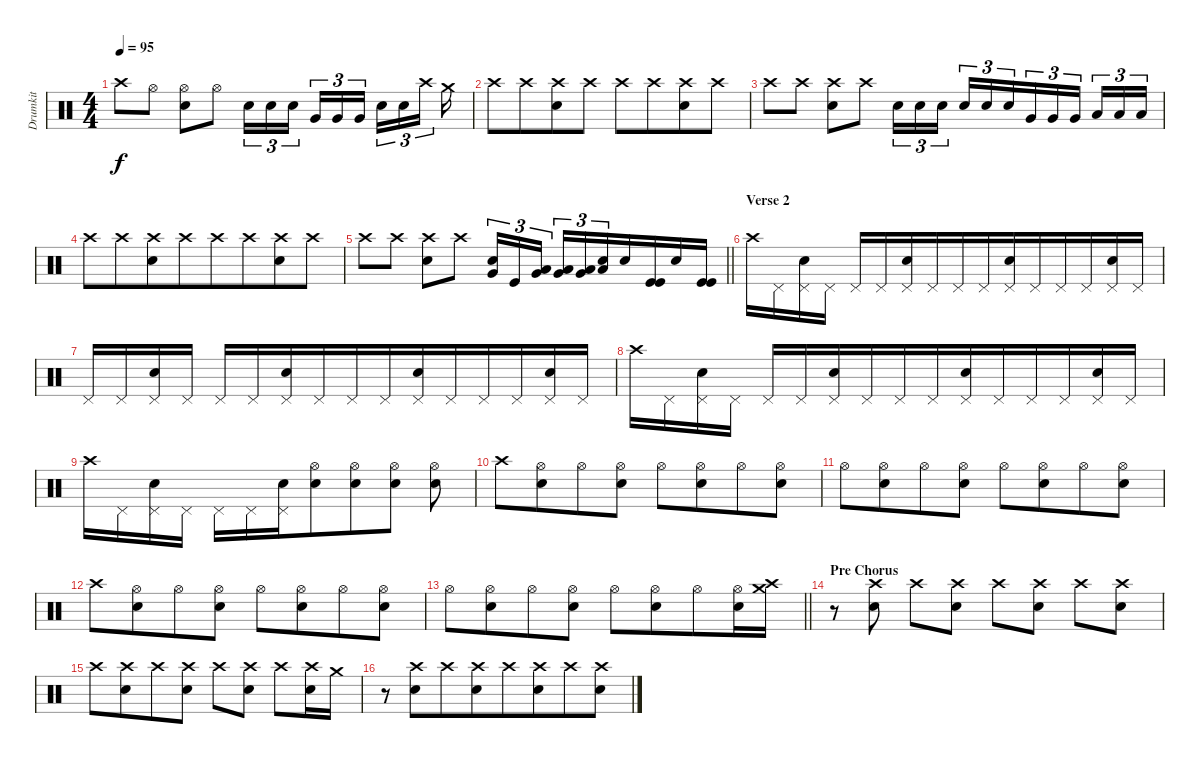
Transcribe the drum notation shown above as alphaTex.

\track ("Drumkit" "Drumkit") {instrument percussion}
\staff {score}
\articulation defaults
\ts (4 4)
\tempo 95
\clef neutral
\ks c "Crash high (hit)".8{dy f beam merge} "Hi-Hat (open)".8
("Hi-Hat (open)" "Electric Snare (hit)").8 "Hi-Hat (open)".8 "Electric Snare (hit)".16{tu (3 2)} "Electric Snare (hit)".16{tu (3 2) beam merge} "Electric Snare (hit)".16{tu (3 2) beam splitsecondary} "Very Low Tom (hit)".16{tu (3 2)} "Very Low Tom (hit)".16{tu (3 2) beam merge} "Very Low Tom (hit)".16{tu (3 2)} "Electric Snare (hit)".16{tu (3 2)} "Electric Snare (hit)".16{tu (3 2) beam merge} "Crash high (hit)".16{tu (3 2) beam splitsecondary} "Crash medium (hit)".16 |
"Crash high (hit)".8 "Crash high (hit)".8{beam merge} ("Crash high (hit)" "Electric Snare (hit)").8 "Crash high (hit)".8 "Crash high (hit)".8{beam merge} "Crash high (hit)".8{beam merge} ("Crash high (hit)" "Electric Snare (hit)").8{beam merge} "Crash high (hit)".8 |
"Crash high (hit)".8 "Crash high (hit)".8 ("Crash high (hit)" "Electric Snare (hit)").8 "Crash high (hit)".8 "Electric Snare (hit)".16{tu (3 2) beam merge} "Electric Snare (hit)".16{tu (3 2) beam merge} "Electric Snare (hit)".16{tu (3 2) beam splitsecondary} "Electric Snare (hit)".16{tu (3 2) beam merge} "Electric Snare (hit)".16{tu (3 2) beam merge} "Electric Snare (hit)".16{tu (3 2) beam merge} "Very Low Tom (hit)".16{tu (3 2) beam merge} "Very Low Tom (hit)".16{tu (3 2)} "Very Low Tom (hit)".16{tu (3 2) beam splitsecondary} "Low Floor Tom (hit)".16{tu (3 2)} "Low Floor Tom (hit)".16{tu (3 2) beam merge} "Low Floor Tom (hit)".16{tu (3 2)} |
"Crash high (hit)".8{beam merge} "Crash high (hit)".8{beam merge} ("Crash high (hit)" "Electric Snare (hit)").8 "Crash high (hit)".8{beam merge} "Crash high (hit)".8 "Crash high (hit)".8{beam merge} ("Crash high (hit)" "Electric Snare (hit)").8 "Crash high (hit)".8 |
\barLineRight lightlight "Crash high (hit)".8 "Crash high (hit)".8
("Crash high (hit)" "Electric Snare (hit)").8 "Crash high (hit)".8 ("Very Low Tom (hit)" "Electric Snare (hit)").16{tu (3 2)} "Kick (hit)".16{tu (3 2)} ("Very Low Tom (hit)" "Low Floor Tom (hit)").16{tu (3 2) beam splitsecondary} ("Very Low Tom (hit)" "Low Floor Tom (hit)").16{tu (3 2) beam merge} ("Very Low Tom (hit)" "Low Floor Tom (hit)").16{tu (3 2) beam merge} ("Low Floor Tom (hit)" "Electric Snare (hit)").16{tu (3 2) beam merge} "Electric Snare (hit)".16 ("Kick (hit)" "Kick (hit)").16 "Electric Snare (hit)".16 ("Kick (hit)" "Kick (hit)").16 |
\section ("" "Verse 2")
"Crash high (hit)".16 "Pedal Hi-Hat (hit)".16 ("Pedal Hi-Hat (hit)" "Electric Snare (hit)").16 "Pedal Hi-Hat (hit)".16 "Pedal Hi-Hat (hit)".16 "Pedal Hi-Hat (hit)".16{beam merge} ("Pedal Hi-Hat (hit)" "Electric Snare (hit)").16{beam merge} "Pedal Hi-Hat (hit)".16{beam merge} "Pedal Hi-Hat (hit)".16{beam merge} "Pedal Hi-Hat (hit)".16 ("Pedal Hi-Hat (hit)" "Electric Snare (hit)").16 "Pedal Hi-Hat (hit)".16{beam merge} "Pedal Hi-Hat (hit)".16 "Pedal Hi-Hat (hit)".16 ("Pedal Hi-Hat (hit)" "Electric Snare (hit)").16{beam merge} "Pedal Hi-Hat (hit)".16 |
"Pedal Hi-Hat (hit)".16 "Pedal Hi-Hat (hit)".16 ("Pedal Hi-Hat (hit)" "Electric Snare (hit)").16 "Pedal Hi-Hat (hit)".16 "Pedal Hi-Hat (hit)".16 "Pedal Hi-Hat (hit)".16{beam merge} ("Pedal Hi-Hat (hit)" "Electric Snare (hit)").16{beam merge} "Pedal Hi-Hat (hit)".16{beam merge} "Pedal Hi-Hat (hit)".16{beam merge} "Pedal Hi-Hat (hit)".16 ("Pedal Hi-Hat (hit)" "Electric Snare (hit)").16 "Pedal Hi-Hat (hit)".16{beam merge} "Pedal Hi-Hat (hit)".16 "Pedal Hi-Hat (hit)".16 ("Pedal Hi-Hat (hit)" "Electric Snare (hit)").16{beam merge} "Pedal Hi-Hat (hit)".16 |
"Crash high (hit)".16 "Pedal Hi-Hat (hit)".16 ("Pedal Hi-Hat (hit)" "Electric Snare (hit)").16 "Pedal Hi-Hat (hit)".16 "Pedal Hi-Hat (hit)".16 "Pedal Hi-Hat (hit)".16{beam merge} ("Pedal Hi-Hat (hit)" "Electric Snare (hit)").16{beam merge} "Pedal Hi-Hat (hit)".16{beam merge} "Pedal Hi-Hat (hit)".16{beam merge} "Pedal Hi-Hat (hit)".16 ("Pedal Hi-Hat (hit)" "Electric Snare (hit)").16 "Pedal Hi-Hat (hit)".16{beam merge} "Pedal Hi-Hat (hit)".16 "Pedal Hi-Hat (hit)".16 ("Pedal Hi-Hat (hit)" "Electric Snare (hit)").16{beam merge} "Pedal Hi-Hat (hit)".16 |
"Crash high (hit)".16 "Pedal Hi-Hat (hit)".16 ("Pedal Hi-Hat (hit)" "Electric Snare (hit)").16 "Pedal Hi-Hat (hit)".16 "Pedal Hi-Hat (hit)".16 "Pedal Hi-Hat (hit)".16{beam merge} ("Pedal Hi-Hat (hit)" "Electric Snare (hit)").16{beam merge} ("Hi-Hat (open)" "Electric Snare (hit)").8{beam merge} ("Hi-Hat (open)" "Electric Snare (hit)").8 ("Hi-Hat (open)" "Electric Snare (hit)").8 ("Hi-Hat (open)" "Electric Snare (hit)").8 |
"Crash high (hit)".8 ("Hi-Hat (open)" "Electric Snare (hit)").8{beam merge} "Hi-Hat (open)".8 ("Hi-Hat (open)" "Electric Snare (hit)").8 "Hi-Hat (open)".8 ("Hi-Hat (open)" "Electric Snare (hit)").8{beam merge} "Hi-Hat (open)".8{beam merge} ("Hi-Hat (open)" "Electric Snare (hit)").8 |
"Hi-Hat (open)".8 ("Hi-Hat (open)" "Electric Snare (hit)").8{beam merge} "Hi-Hat (open)".8 ("Hi-Hat (open)" "Electric Snare (hit)").8 "Hi-Hat (open)".8 ("Hi-Hat (open)" "Electric Snare (hit)").8{beam merge} "Hi-Hat (open)".8{beam merge} ("Hi-Hat (open)" "Electric Snare (hit)").8 |
"Crash high (hit)".8 ("Hi-Hat (open)" "Electric Snare (hit)").8{beam merge} "Hi-Hat (open)".8 ("Hi-Hat (open)" "Electric Snare (hit)").8 "Hi-Hat (open)".8 ("Hi-Hat (open)" "Electric Snare (hit)").8{beam merge} "Hi-Hat (open)".8{beam merge} ("Hi-Hat (open)" "Electric Snare (hit)").8 |
\barLineRight lightlight "Hi-Hat (open)".8
("Hi-Hat (open)" "Electric Snare (hit)").8{beam merge} "Hi-Hat (open)".8 ("Hi-Hat (open)" "Electric Snare (hit)").8 "Hi-Hat (open)".8 ("Hi-Hat (open)" "Electric Snare (hit)").8{beam merge} "Hi-Hat (open)".8{beam merge} ("Hi-Hat (open)" "Electric Snare (hit)").16 ("Crash medium (hit)" "Crash high (hit)").16 |
\section ("" "Pre Chorus")
r.8 ("Crash high (hit)" "Electric Snare (hit)").8 "Crash high (hit)".8{beam merge} ("Crash high (hit)" "Electric Snare (hit)").8 "Crash high (hit)".8 ("Crash high (hit)" "Electric Snare (hit)").8 "Crash high (hit)".8 ("Crash high (hit)" "Electric Snare (hit)").8 |
"Crash high (hit)".8 ("Crash high (hit)" "Electric Snare (hit)").8{beam merge} "Crash high (hit)".8 ("Crash high (hit)" "Electric Snare (hit)").8 "Crash high (hit)".8 ("Crash high (hit)" "Electric Snare (hit)").8 "Crash high (hit)".8{beam merge} ("Crash high (hit)" "Electric Snare (hit)").16{beam merge} "Crash medium (hit)".16 |
r.8 ("Crash high (hit)" "Electric Snare (hit)").8{beam merge} "Crash high (hit)".8 ("Crash high (hit)" "Electric Snare (hit)").8{beam merge} "Crash high (hit)".8{beam merge} ("Crash high (hit)" "Electric Snare (hit)").8{beam merge} "Crash high (hit)".8 ("Crash high (hit)" "Electric Snare (hit)").8
